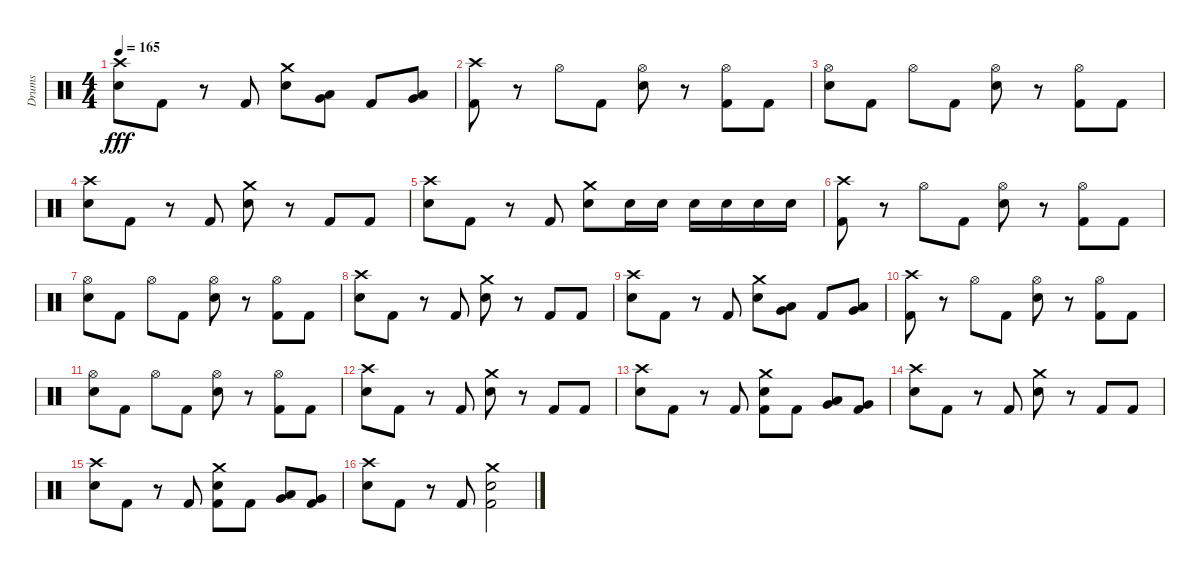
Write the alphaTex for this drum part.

\track ("Drums" "Drums") {instrument percussion}
\staff {score}
\articulation defaults
\ts (4 4)
\tempo 165
\clef neutral
\ks c
("Crash high (hit)" "Electric Snare (hit)").8{dy fff} "Kick (hit) 2".8 r.8 "Kick (hit) 2".8 ("Crash medium (hit)" "Electric Snare (hit)").8 ("Very Low Tom (hit)" "Low Tom (hit)").8 "Kick (hit) 2".8 ("Low Floor Tom (hit)" "Very Low Tom (hit)").8 |
("Crash high (hit)" "Kick (hit) 2").8 r.8 "Hi-Hat (open)".8 "Kick (hit) 2".8 ("Hi-Hat (open)" "Electric Snare (hit)").8 r.8 ("Hi-Hat (open)" "Kick (hit) 2").8 "Kick (hit) 2".8 |
("Hi-Hat (open)" "Electric Snare (hit)").8 "Kick (hit) 2".8 "Hi-Hat (open)".8 "Kick (hit) 2".8 ("Hi-Hat (open)" "Electric Snare (hit)").8 r.8 ("Hi-Hat (open)" "Kick (hit) 2").8 "Kick (hit) 2".8 |
("Crash high (hit)" "Electric Snare (hit)").8 "Kick (hit) 2".8 r.8 "Kick (hit) 2".8 ("Crash medium (hit)" "Electric Snare (hit)").8 r.8 "Kick (hit) 2".8 "Kick (hit) 2".8 |
("Crash high (hit)" "Electric Snare (hit)").8 "Kick (hit) 2".8 r.8 "Kick (hit) 2".8 ("Crash medium (hit)" "Electric Snare (hit)").8 "Electric Snare (hit)".16 "Electric Snare (hit)".16 "Electric Snare (hit)".16 "Electric Snare (hit)".16 "Electric Snare (hit)".16 "Electric Snare (hit)".16 |
("Crash high (hit)" "Kick (hit) 2").8 r.8 "Hi-Hat (open)".8 "Kick (hit) 2".8 ("Hi-Hat (open)" "Electric Snare (hit)").8 r.8 ("Hi-Hat (open)" "Kick (hit) 2").8 "Kick (hit) 2".8 |
("Hi-Hat (open)" "Electric Snare (hit)").8 "Kick (hit) 2".8 "Hi-Hat (open)".8 "Kick (hit) 2".8 ("Hi-Hat (open)" "Electric Snare (hit)").8 r.8 ("Hi-Hat (open)" "Kick (hit) 2").8 "Kick (hit) 2".8 |
("Crash high (hit)" "Electric Snare (hit)").8 "Kick (hit) 2".8 r.8 "Kick (hit) 2".8 ("Crash medium (hit)" "Electric Snare (hit)").8 r.8 "Kick (hit) 2".8 "Kick (hit) 2".8 |
("Crash high (hit)" "Electric Snare (hit)").8 "Kick (hit) 2".8 r.8 "Kick (hit) 2".8 ("Crash medium (hit)" "Electric Snare (hit)").8 ("Very Low Tom (hit)" "Low Tom (hit)").8 "Kick (hit) 2".8 ("Low Floor Tom (hit)" "Very Low Tom (hit)").8 |
("Crash high (hit)" "Kick (hit) 2").8 r.8 "Hi-Hat (open)".8 "Kick (hit) 2".8 ("Hi-Hat (open)" "Electric Snare (hit)").8 r.8 ("Hi-Hat (open)" "Kick (hit) 2").8 "Kick (hit) 2".8 |
("Hi-Hat (open)" "Electric Snare (hit)").8 "Kick (hit) 2".8 "Hi-Hat (open)".8 "Kick (hit) 2".8 ("Hi-Hat (open)" "Electric Snare (hit)").8 r.8 ("Hi-Hat (open)" "Kick (hit) 2").8 "Kick (hit) 2".8 |
("Crash high (hit)" "Electric Snare (hit)").8 "Kick (hit) 2".8 r.8 "Kick (hit) 2".8 ("Crash medium (hit)" "Electric Snare (hit)").8 r.8 "Kick (hit) 2".8 "Kick (hit) 2".8 |
("Crash high (hit)" "Electric Snare (hit)").8 "Kick (hit) 2".8 r.8 "Kick (hit) 2".8 ("Crash medium (hit)" "Electric Snare (hit)" "Kick (hit) 2").8 "Kick (hit) 2".8 ("Very Low Tom (hit)" "Low Tom (hit)").8 ("Very Low Tom (hit)" "Kick (hit) 2").8 |
("Crash high (hit)" "Electric Snare (hit)").8 "Kick (hit) 2".8 r.8 "Kick (hit) 2".8 ("Crash medium (hit)" "Electric Snare (hit)").8 r.8 "Kick (hit) 2".8 "Kick (hit) 2".8 |
("Crash high (hit)" "Electric Snare (hit)").8 "Kick (hit) 2".8 r.8 "Kick (hit) 2".8 ("Crash medium (hit)" "Electric Snare (hit)" "Kick (hit) 2").8 "Kick (hit) 2".8 ("Very Low Tom (hit)" "Low Tom (hit)").8 ("Very Low Tom (hit)" "Kick (hit) 2").8 |
("Crash high (hit)" "Electric Snare (hit)").8 "Kick (hit) 2".8 r.8 "Kick (hit) 2".8 ("Crash medium (hit)" "Electric Snare (hit)" "Kick (hit) 2").2
